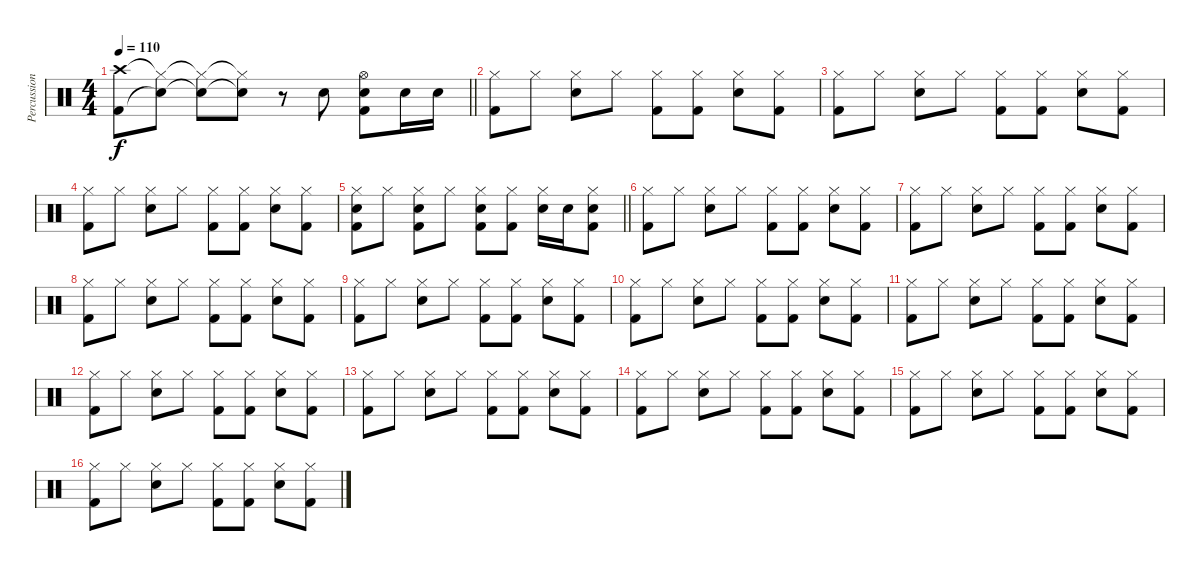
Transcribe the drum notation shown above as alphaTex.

\track ("Percussions" "Percussion") {instrument percussion}
\staff {score}
\articulation defaults
\ts (4 4)
\tempo 110
\clef neutral
\barLineRight lightlight
\ks c
("Crash high (hit)"{t} "Kick (hit) 2"{t}).8{dy f} ("Hi-Hat (closed)"{t} "Snare (hit)"{t}).8 ("Hi-Hat (closed)"{t} "Snare (hit)"{t}).8 ("Hi-Hat (closed)"{t} "Snare (hit)"{t}).8 r.8 "Electric Snare (hit)".8 ("Hi-Hat (open)" "Electric Snare (hit)" "Kick (hit) 2").8 "Electric Snare (hit)".16 "Electric Snare (hit)".16 |
("Hi-Hat (closed)" "Kick (hit) 2").8 "Hi-Hat (closed)".8 ("Hi-Hat (closed)" "Electric Snare (hit)").8 "Hi-Hat (closed)".8 ("Hi-Hat (closed)" "Kick (hit) 2").8 ("Hi-Hat (closed)" "Kick (hit) 2").8 ("Hi-Hat (closed)" "Electric Snare (hit)").8 ("Hi-Hat (closed)" "Kick (hit) 2").8 |
("Hi-Hat (closed)" "Kick (hit) 2").8 "Hi-Hat (closed)".8 ("Hi-Hat (closed)" "Electric Snare (hit)").8 "Hi-Hat (closed)".8 ("Hi-Hat (closed)" "Kick (hit) 2").8 ("Hi-Hat (closed)" "Kick (hit) 2").8 ("Hi-Hat (closed)" "Electric Snare (hit)").8 ("Hi-Hat (closed)" "Kick (hit) 2").8 |
("Hi-Hat (closed)" "Kick (hit) 2").8 "Hi-Hat (closed)".8 ("Hi-Hat (closed)" "Electric Snare (hit)").8 "Hi-Hat (closed)".8 ("Hi-Hat (closed)" "Kick (hit) 2").8 ("Hi-Hat (closed)" "Kick (hit) 2").8 ("Hi-Hat (closed)" "Electric Snare (hit)").8 ("Hi-Hat (closed)" "Kick (hit) 2").8 |
\barLineRight lightlight
("Hi-Hat (closed)" "Electric Snare (hit)" "Kick (hit) 2").8 "Hi-Hat (closed)".8 ("Hi-Hat (closed)" "Electric Snare (hit)" "Kick (hit) 2").8 "Hi-Hat (closed)".8 ("Hi-Hat (closed)" "Electric Snare (hit)" "Kick (hit) 2").8 ("Hi-Hat (closed)" "Kick (hit) 2").8 ("Hi-Hat (closed)" "Electric Snare (hit)").16 "Electric Snare (hit)".16 ("Hi-Hat (closed)" "Electric Snare (hit)" "Kick (hit) 2").8 |
("Hi-Hat (closed)" "Kick (hit) 2").8 "Hi-Hat (closed)".8 ("Hi-Hat (closed)" "Electric Snare (hit)").8 "Hi-Hat (closed)".8 ("Hi-Hat (closed)" "Kick (hit) 2").8 ("Hi-Hat (closed)" "Kick (hit) 2").8 ("Hi-Hat (closed)" "Electric Snare (hit)").8 ("Hi-Hat (closed)" "Kick (hit) 2").8 |
("Hi-Hat (closed)" "Kick (hit) 2").8 "Hi-Hat (closed)".8 ("Hi-Hat (closed)" "Electric Snare (hit)").8 "Hi-Hat (closed)".8 ("Hi-Hat (closed)" "Kick (hit) 2").8 ("Hi-Hat (closed)" "Kick (hit) 2").8 ("Hi-Hat (closed)" "Electric Snare (hit)").8 ("Hi-Hat (closed)" "Kick (hit) 2").8 |
("Hi-Hat (closed)" "Kick (hit) 2").8 "Hi-Hat (closed)".8 ("Hi-Hat (closed)" "Electric Snare (hit)").8 "Hi-Hat (closed)".8 ("Hi-Hat (closed)" "Kick (hit) 2").8 ("Hi-Hat (closed)" "Kick (hit) 2").8 ("Hi-Hat (closed)" "Electric Snare (hit)").8 ("Hi-Hat (closed)" "Kick (hit) 2").8 |
("Hi-Hat (closed)" "Kick (hit) 2").8 "Hi-Hat (closed)".8 ("Hi-Hat (closed)" "Electric Snare (hit)").8 "Hi-Hat (closed)".8 ("Hi-Hat (closed)" "Kick (hit) 2").8 ("Hi-Hat (closed)" "Kick (hit) 2").8 ("Hi-Hat (closed)" "Electric Snare (hit)").8 ("Hi-Hat (closed)" "Kick (hit) 2").8 |
("Hi-Hat (closed)" "Kick (hit) 2").8 "Hi-Hat (closed)".8 ("Hi-Hat (closed)" "Electric Snare (hit)").8 "Hi-Hat (closed)".8 ("Hi-Hat (closed)" "Kick (hit) 2").8 ("Hi-Hat (closed)" "Kick (hit) 2").8 ("Hi-Hat (closed)" "Electric Snare (hit)").8 ("Hi-Hat (closed)" "Kick (hit) 2").8 |
("Hi-Hat (closed)" "Kick (hit) 2").8 "Hi-Hat (closed)".8 ("Hi-Hat (closed)" "Electric Snare (hit)").8 "Hi-Hat (closed)".8 ("Hi-Hat (closed)" "Kick (hit) 2").8 ("Hi-Hat (closed)" "Kick (hit) 2").8 ("Hi-Hat (closed)" "Electric Snare (hit)").8 ("Hi-Hat (closed)" "Kick (hit) 2").8 |
("Hi-Hat (closed)" "Kick (hit) 2").8 "Hi-Hat (closed)".8 ("Hi-Hat (closed)" "Electric Snare (hit)").8 "Hi-Hat (closed)".8 ("Hi-Hat (closed)" "Kick (hit) 2").8 ("Hi-Hat (closed)" "Kick (hit) 2").8 ("Hi-Hat (closed)" "Electric Snare (hit)").8 ("Hi-Hat (closed)" "Kick (hit) 2").8 |
("Hi-Hat (closed)" "Kick (hit) 2").8 "Hi-Hat (closed)".8 ("Hi-Hat (closed)" "Electric Snare (hit)").8 "Hi-Hat (closed)".8 ("Hi-Hat (closed)" "Kick (hit) 2").8 ("Hi-Hat (closed)" "Kick (hit) 2").8 ("Hi-Hat (closed)" "Electric Snare (hit)").8 ("Hi-Hat (closed)" "Kick (hit) 2").8 |
("Hi-Hat (closed)" "Kick (hit) 2").8 "Hi-Hat (closed)".8 ("Hi-Hat (closed)" "Electric Snare (hit)").8 "Hi-Hat (closed)".8 ("Hi-Hat (closed)" "Kick (hit) 2").8 ("Hi-Hat (closed)" "Kick (hit) 2").8 ("Hi-Hat (closed)" "Electric Snare (hit)").8 ("Hi-Hat (closed)" "Kick (hit) 2").8 |
("Hi-Hat (closed)" "Kick (hit) 2").8 "Hi-Hat (closed)".8 ("Hi-Hat (closed)" "Electric Snare (hit)").8 "Hi-Hat (closed)".8 ("Hi-Hat (closed)" "Kick (hit) 2").8 ("Hi-Hat (closed)" "Kick (hit) 2").8 ("Hi-Hat (closed)" "Electric Snare (hit)").8 ("Hi-Hat (closed)" "Kick (hit) 2").8 |
("Hi-Hat (closed)" "Kick (hit) 2").8 "Hi-Hat (closed)".8 ("Hi-Hat (closed)" "Electric Snare (hit)").8 "Hi-Hat (closed)".8 ("Hi-Hat (closed)" "Kick (hit) 2").8 ("Hi-Hat (closed)" "Kick (hit) 2").8 ("Hi-Hat (closed)" "Electric Snare (hit)").8 ("Hi-Hat (closed)" "Kick (hit) 2").8
